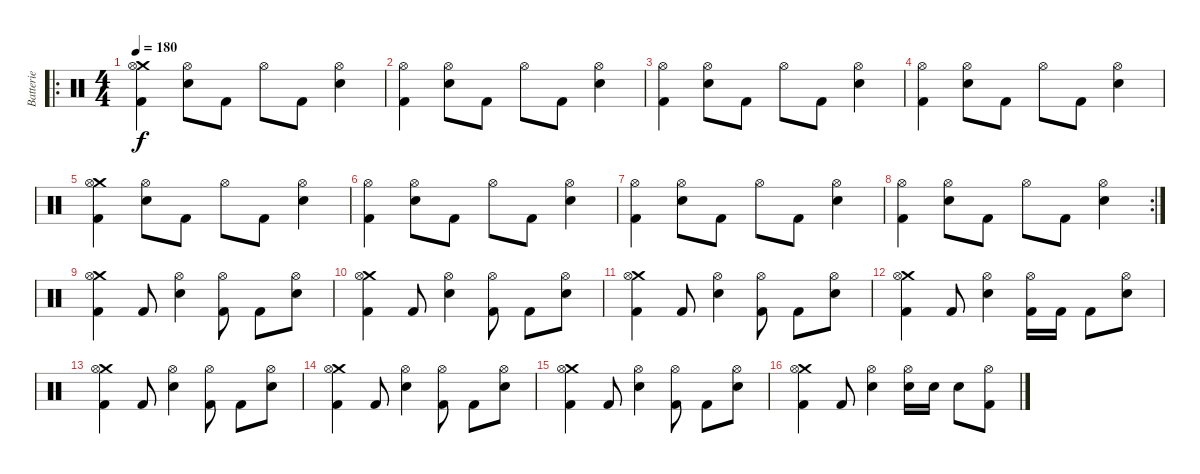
\track ("Batterie" "Batterie") {instrument percussion}
\staff {score}
\articulation defaults
\ro
\ts (4 4)
\tempo 180
\clef neutral
\ks c
("Crash medium (hit)" "Hi-Hat (open)" "Kick (hit) 2").4{dy f} ("Hi-Hat (open)" "Electric Snare (hit)").8 "Kick (hit) 2".8 "Hi-Hat (open)".8 "Kick (hit) 2".8 ("Hi-Hat (open)" "Electric Snare (hit)").4 |
("Hi-Hat (open)" "Kick (hit) 2").4 ("Hi-Hat (open)" "Electric Snare (hit)").8 "Kick (hit) 2".8 "Hi-Hat (open)".8 "Kick (hit) 2".8 ("Hi-Hat (open)" "Electric Snare (hit)").4 |
("Hi-Hat (open)" "Kick (hit) 2").4 ("Hi-Hat (open)" "Electric Snare (hit)").8 "Kick (hit) 2".8 "Hi-Hat (open)".8 "Kick (hit) 2".8 ("Hi-Hat (open)" "Electric Snare (hit)").4 |
("Hi-Hat (open)" "Kick (hit) 2").4 ("Hi-Hat (open)" "Electric Snare (hit)").8 "Kick (hit) 2".8 "Hi-Hat (open)".8 "Kick (hit) 2".8 ("Hi-Hat (open)" "Electric Snare (hit)").4 |
("Crash medium (hit)" "Hi-Hat (open)" "Kick (hit) 2").4 ("Hi-Hat (open)" "Electric Snare (hit)").8 "Kick (hit) 2".8 "Hi-Hat (open)".8 "Kick (hit) 2".8 ("Hi-Hat (open)" "Electric Snare (hit)").4 |
("Hi-Hat (open)" "Kick (hit) 2").4 ("Hi-Hat (open)" "Electric Snare (hit)").8 "Kick (hit) 2".8 "Hi-Hat (open)".8 "Kick (hit) 2".8 ("Hi-Hat (open)" "Electric Snare (hit)").4 |
("Hi-Hat (open)" "Kick (hit) 2").4 ("Hi-Hat (open)" "Electric Snare (hit)").8 "Kick (hit) 2".8 "Hi-Hat (open)".8 "Kick (hit) 2".8 ("Hi-Hat (open)" "Electric Snare (hit)").4 |
\rc 2
("Hi-Hat (open)" "Kick (hit) 2").4 ("Hi-Hat (open)" "Electric Snare (hit)").8 "Kick (hit) 2".8 "Hi-Hat (open)".8 "Kick (hit) 2".8 ("Hi-Hat (open)" "Electric Snare (hit)").4 |
("Crash medium (hit)" "Hi-Hat (open)" "Kick (hit) 2").4 "Kick (hit) 2".8 ("Hi-Hat (open)" "Electric Snare (hit)").4 ("Hi-Hat (open)" "Kick (hit) 2").8 "Kick (hit) 2".8 ("Hi-Hat (open)" "Electric Snare (hit)").8 |
("Crash medium (hit)" "Hi-Hat (open)" "Kick (hit) 2").4 "Kick (hit) 2".8 ("Hi-Hat (open)" "Electric Snare (hit)").4 ("Hi-Hat (open)" "Kick (hit) 2").8 "Kick (hit) 2".8 ("Hi-Hat (open)" "Electric Snare (hit)").8 |
("Crash medium (hit)" "Hi-Hat (open)" "Kick (hit) 2").4 "Kick (hit) 2".8 ("Hi-Hat (open)" "Electric Snare (hit)").4 ("Hi-Hat (open)" "Kick (hit) 2").8 "Kick (hit) 2".8 ("Hi-Hat (open)" "Electric Snare (hit)").8 |
("Crash medium (hit)" "Hi-Hat (open)" "Kick (hit) 2").4 "Kick (hit) 2".8 ("Hi-Hat (open)" "Electric Snare (hit)").4 ("Hi-Hat (open)" "Kick (hit) 2").16 "Kick (hit) 2".16 "Kick (hit) 2".8 ("Hi-Hat (open)" "Electric Snare (hit)").8 |
("Crash medium (hit)" "Hi-Hat (open)" "Kick (hit) 2").4 "Kick (hit) 2".8 ("Hi-Hat (open)" "Electric Snare (hit)").4 ("Hi-Hat (open)" "Kick (hit) 2").8 "Kick (hit) 2".8 ("Hi-Hat (open)" "Electric Snare (hit)").8 |
("Crash medium (hit)" "Hi-Hat (open)" "Kick (hit) 2").4 "Kick (hit) 2".8 ("Hi-Hat (open)" "Electric Snare (hit)").4 ("Hi-Hat (open)" "Kick (hit) 2").8 "Kick (hit) 2".8 ("Hi-Hat (open)" "Electric Snare (hit)").8 |
("Crash medium (hit)" "Hi-Hat (open)" "Kick (hit) 2").4 "Kick (hit) 2".8 ("Hi-Hat (open)" "Electric Snare (hit)").4 ("Hi-Hat (open)" "Kick (hit) 2").8 "Kick (hit) 2".8 ("Hi-Hat (open)" "Electric Snare (hit)").8 |
("Crash medium (hit)" "Hi-Hat (open)" "Kick (hit) 2").4 "Kick (hit) 2".8 ("Hi-Hat (open)" "Electric Snare (hit)").4 ("Hi-Hat (open)" "Electric Snare (hit)").16 "Electric Snare (hit)".16 "Electric Snare (hit)".8 ("Hi-Hat (open)" "Kick (hit) 2").8
